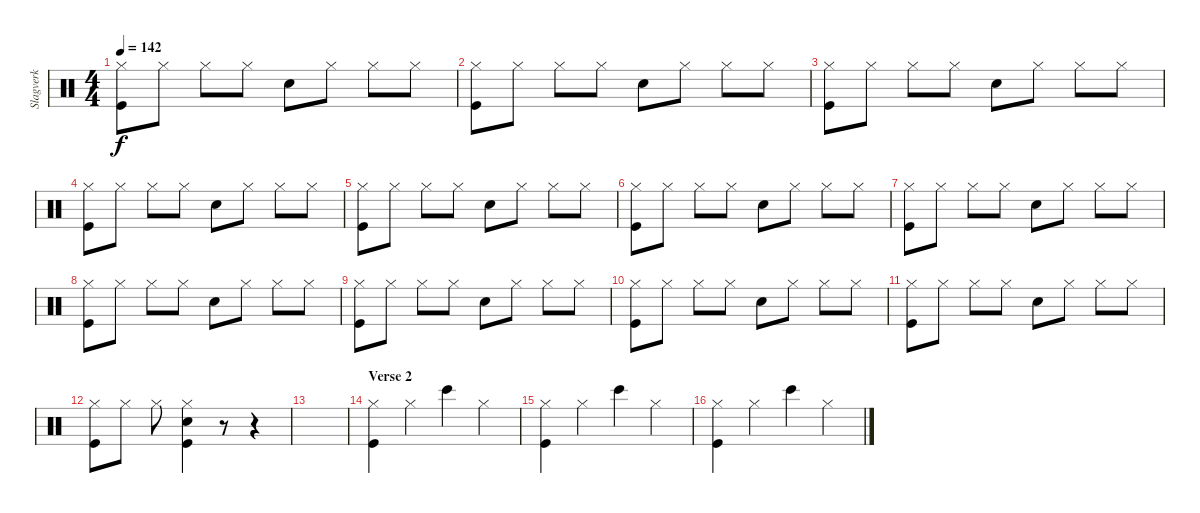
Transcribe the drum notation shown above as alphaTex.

\track ("Slagverk" "Slagverk") {instrument percussion}
\staff {score}
\articulation defaults
\ts (4 4)
\tempo 142
\clef neutral
\ks c
("Hi-Hat (closed)" "Kick (hit)").8{dy f} "Hi-Hat (closed)".8 "Hi-Hat (closed)".8 "Hi-Hat (closed)".8 "Snare (hit) 2".8 "Hi-Hat (closed)".8 "Hi-Hat (closed)".8 "Hi-Hat (closed)".8 |
("Hi-Hat (closed)" "Kick (hit)").8 "Hi-Hat (closed)".8 "Hi-Hat (closed)".8 "Hi-Hat (closed)".8 "Snare (hit) 2".8 "Hi-Hat (closed)".8 "Hi-Hat (closed)".8 "Hi-Hat (closed)".8 |
("Hi-Hat (closed)" "Kick (hit)").8 "Hi-Hat (closed)".8 "Hi-Hat (closed)".8 "Hi-Hat (closed)".8 "Snare (hit) 2".8 "Hi-Hat (closed)".8 "Hi-Hat (closed)".8 "Hi-Hat (closed)".8 |
("Hi-Hat (closed)" "Kick (hit)").8 "Hi-Hat (closed)".8 "Hi-Hat (closed)".8 "Hi-Hat (closed)".8 "Snare (hit) 2".8 "Hi-Hat (closed)".8 "Hi-Hat (closed)".8 "Hi-Hat (closed)".8 |
("Hi-Hat (closed)" "Kick (hit)").8 "Hi-Hat (closed)".8 "Hi-Hat (closed)".8 "Hi-Hat (closed)".8 "Snare (hit) 2".8 "Hi-Hat (closed)".8 "Hi-Hat (closed)".8 "Hi-Hat (closed)".8 |
("Hi-Hat (closed)" "Kick (hit)").8 "Hi-Hat (closed)".8 "Hi-Hat (closed)".8 "Hi-Hat (closed)".8 "Snare (hit) 2".8 "Hi-Hat (closed)".8 "Hi-Hat (closed)".8 "Hi-Hat (closed)".8 |
("Hi-Hat (closed)" "Kick (hit)").8 "Hi-Hat (closed)".8 "Hi-Hat (closed)".8 "Hi-Hat (closed)".8 "Snare (hit) 2".8 "Hi-Hat (closed)".8 "Hi-Hat (closed)".8 "Hi-Hat (closed)".8 |
("Hi-Hat (closed)" "Kick (hit)").8 "Hi-Hat (closed)".8 "Hi-Hat (closed)".8 "Hi-Hat (closed)".8 "Snare (hit) 2".8 "Hi-Hat (closed)".8 "Hi-Hat (closed)".8 "Hi-Hat (closed)".8 |
("Hi-Hat (closed)" "Kick (hit)").8 "Hi-Hat (closed)".8 "Hi-Hat (closed)".8 "Hi-Hat (closed)".8 "Snare (hit) 2".8 "Hi-Hat (closed)".8 "Hi-Hat (closed)".8 "Hi-Hat (closed)".8 |
("Hi-Hat (closed)" "Kick (hit)").8 "Hi-Hat (closed)".8 "Hi-Hat (closed)".8 "Hi-Hat (closed)".8 "Snare (hit) 2".8 "Hi-Hat (closed)".8 "Hi-Hat (closed)".8 "Hi-Hat (closed)".8 |
("Hi-Hat (closed)" "Kick (hit)").8 "Hi-Hat (closed)".8 "Hi-Hat (closed)".8 "Hi-Hat (closed)".8 "Snare (hit) 2".8 "Hi-Hat (closed)".8 "Hi-Hat (closed)".8 "Hi-Hat (closed)".8 |
("Hi-Hat (closed)" "Kick (hit)").8 "Hi-Hat (closed)".8 "Hi-Hat (closed)".8 ("Hi-Hat (closed)" "Kick (hit)" "Electric Snare (hit)").4 r.8 r.4 |
|
\section ("" "Verse 2")
("Hi-Hat (closed)" "Kick (hit)").4 "Hi-Hat (closed)".4 "Bongo High (hit)".4 "Hi-Hat (closed)".4 |
("Hi-Hat (closed)" "Kick (hit)").4 "Hi-Hat (closed)".4 "Bongo High (hit)".4 "Hi-Hat (closed)".4 |
("Hi-Hat (closed)" "Kick (hit)").4 "Hi-Hat (closed)".4 "Bongo High (hit)".4 "Hi-Hat (closed)".4
